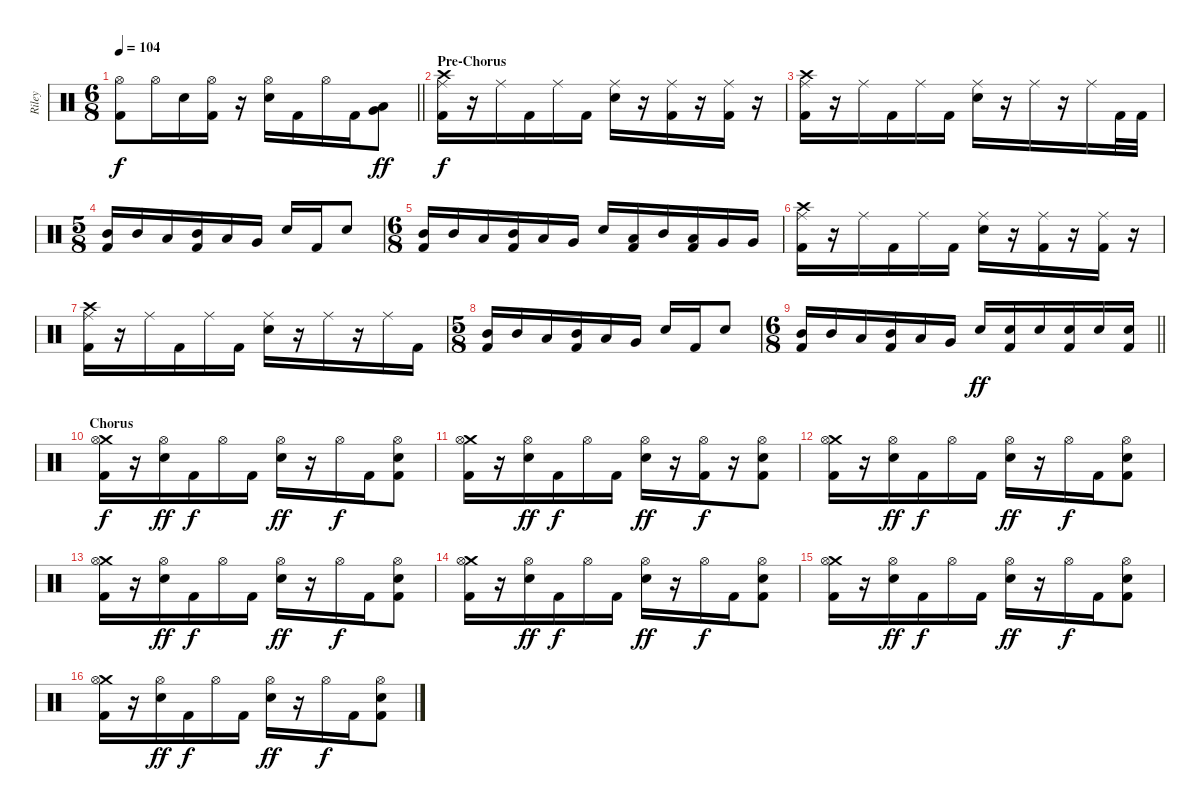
\track ("Riley" "Riley") {instrument percussion}
\staff {score}
\articulation defaults
\ts (6 8)
\tempo 104
\clef neutral
\barLineRight lightlight
\ks c
("Hi-Hat (open)" "Kick (hit) 2").8{dy f} "Hi-Hat (open)".16 "Electric Snare (hit)".16 ("Hi-Hat (open)" "Kick (hit) 2").16 r.16 ("Hi-Hat (open)" "Electric Snare (hit)").16 "Kick (hit) 2".16 "Hi-Hat (open)".16 "Kick (hit) 2".16 ("Low Floor Tom (hit)" "Very Low Tom (hit)").8{dy ff} |
\section ("" "Pre-Chorus")
("Crash high (hit)" "Ride (middle)" "Kick (hit) 2").16{dy f} r.16 "Ride (middle)".16 "Kick (hit) 2".16 "Ride (middle)".16 "Kick (hit) 2".16 ("Ride (middle)" "Electric Snare (hit)").16 r.16 ("Ride (middle)" "Kick (hit) 2").16 r.16 ("Ride (middle)" "Kick (hit) 2").16 r.16 |
("Crash high (hit)" "Ride (middle)" "Kick (hit) 2").16 r.16 "Ride (middle)".16 "Kick (hit) 2".16 "Ride (middle)".16 "Kick (hit) 2".16 ("Ride (middle)" "Electric Snare (hit)").16 r.16 "Ride (middle)".16 r.16 "Ride (middle)".16 "Kick (hit) 2".32 "Kick (hit) 2".32 |
\ts (5 8)
("Mid Tom (hit)" "Kick (hit) 2").16 "Mid Tom (hit)".16 "Low Tom (hit)".16 ("Mid Tom (hit)" "Kick (hit) 2").16 "Low Tom (hit)".16 "Very Low Tom (hit)".16 "Electric Snare (hit)".16 "Kick (hit) 2".16 "Electric Snare (hit)".8 |
\ts (6 8)
("Mid Tom (hit)" "Kick (hit) 2").16 "Mid Tom (hit)".16 "Low Tom (hit)".16 ("Mid Tom (hit)" "Kick (hit) 2").16 "Low Tom (hit)".16 "Very Low Tom (hit)".16 "Electric Snare (hit)".16 ("Low Tom (hit)" "Kick (hit) 2").16 "Mid Tom (hit)".16 ("Low Tom (hit)" "Kick (hit) 2").16 "Very Low Tom (hit)".16 "Very Low Tom (hit)".16 |
("Crash high (hit)" "Ride (middle)" "Kick (hit) 2").16 r.16 "Ride (middle)".16 "Kick (hit) 2".16 "Ride (middle)".16 "Kick (hit) 2".16 ("Ride (middle)" "Electric Snare (hit)").16 r.16 ("Ride (middle)" "Kick (hit) 2").16 r.16 ("Ride (middle)" "Kick (hit) 2").16 r.16 |
("Crash high (hit)" "Ride (middle)" "Kick (hit) 2").16 r.16 "Ride (middle)".16 "Kick (hit) 2".16 "Ride (middle)".16 "Kick (hit) 2".16 ("Ride (middle)" "Electric Snare (hit)").16 r.16 "Ride (middle)".16 r.16 "Ride (middle)".16 "Kick (hit) 2".16 |
\ts (5 8)
("Mid Tom (hit)" "Kick (hit) 2").16 "Mid Tom (hit)".16 "Low Tom (hit)".16 ("Mid Tom (hit)" "Kick (hit) 2").16 "Low Tom (hit)".16 "Very Low Tom (hit)".16 "Electric Snare (hit)".16 "Kick (hit) 2".16 "Electric Snare (hit)".8 |
\ts (6 8)
\barLineRight lightlight
("Mid Tom (hit)" "Kick (hit) 2").16 "Mid Tom (hit)".16 "Low Tom (hit)".16 ("Mid Tom (hit)" "Kick (hit) 2").16 "Low Tom (hit)".16 "Very Low Tom (hit)".16 "Electric Snare (hit)".16{dy ff} ("Electric Snare (hit)" "Kick (hit) 2").16 "Electric Snare (hit)".16 ("Electric Snare (hit)" "Kick (hit) 2").16 "Electric Snare (hit)".16 ("Electric Snare (hit)" "Kick (hit) 2").16 |
\section ("" "Chorus")
("Crash medium (hit)" "Hi-Hat (open)" "Kick (hit) 2").16{dy f} r.16 ("Hi-Hat (open)" "Electric Snare (hit)").16{dy ff} "Kick (hit) 2".16{dy f} "Hi-Hat (open)".16 "Kick (hit) 2".16 ("Hi-Hat (open)" "Electric Snare (hit)").16{dy ff} r.16 "Hi-Hat (open)".16{dy f} "Kick (hit) 2".16 ("Hi-Hat (open)" "Electric Snare (hit)" "Kick (hit) 2").8 |
("Crash medium (hit)" "Hi-Hat (open)" "Kick (hit) 2").16 r.16 ("Hi-Hat (open)" "Electric Snare (hit)").16{dy ff} "Kick (hit) 2".16{dy f} "Hi-Hat (open)".16 "Kick (hit) 2".16 ("Hi-Hat (open)" "Electric Snare (hit)").16{dy ff} r.16 ("Hi-Hat (open)" "Kick (hit) 2").16{dy f} r.16 ("Hi-Hat (open)" "Electric Snare (hit)" "Kick (hit) 2").8 |
("Crash medium (hit)" "Hi-Hat (open)" "Kick (hit) 2").16 r.16 ("Hi-Hat (open)" "Electric Snare (hit)").16{dy ff} "Kick (hit) 2".16{dy f} "Hi-Hat (open)".16 "Kick (hit) 2".16 ("Hi-Hat (open)" "Electric Snare (hit)").16{dy ff} r.16 "Hi-Hat (open)".16{dy f} "Kick (hit) 2".16 ("Hi-Hat (open)" "Electric Snare (hit)" "Kick (hit) 2").8 |
("Crash medium (hit)" "Hi-Hat (open)" "Kick (hit) 2").16 r.16 ("Hi-Hat (open)" "Electric Snare (hit)").16{dy ff} "Kick (hit) 2".16{dy f} "Hi-Hat (open)".16 "Kick (hit) 2".16 ("Hi-Hat (open)" "Electric Snare (hit)").16{dy ff} r.16 "Hi-Hat (open)".16{dy f} "Kick (hit) 2".16 ("Hi-Hat (open)" "Electric Snare (hit)" "Kick (hit) 2").8 |
("Crash medium (hit)" "Hi-Hat (open)" "Kick (hit) 2").16 r.16 ("Hi-Hat (open)" "Electric Snare (hit)").16{dy ff} "Kick (hit) 2".16{dy f} "Hi-Hat (open)".16 "Kick (hit) 2".16 ("Hi-Hat (open)" "Electric Snare (hit)").16{dy ff} r.16 "Hi-Hat (open)".16{dy f} "Kick (hit) 2".16 ("Hi-Hat (open)" "Electric Snare (hit)" "Kick (hit) 2").8 |
("Crash medium (hit)" "Hi-Hat (open)" "Kick (hit) 2").16 r.16 ("Hi-Hat (open)" "Electric Snare (hit)").16{dy ff} "Kick (hit) 2".16{dy f} "Hi-Hat (open)".16 "Kick (hit) 2".16 ("Hi-Hat (open)" "Electric Snare (hit)").16{dy ff} r.16 "Hi-Hat (open)".16{dy f} "Kick (hit) 2".16 ("Hi-Hat (open)" "Electric Snare (hit)" "Kick (hit) 2").8 |
("Crash medium (hit)" "Hi-Hat (open)" "Kick (hit) 2").16 r.16 ("Hi-Hat (open)" "Electric Snare (hit)").16{dy ff} "Kick (hit) 2".16{dy f} "Hi-Hat (open)".16 "Kick (hit) 2".16 ("Hi-Hat (open)" "Electric Snare (hit)").16{dy ff} r.16 "Hi-Hat (open)".16{dy f} "Kick (hit) 2".16 ("Hi-Hat (open)" "Electric Snare (hit)" "Kick (hit) 2").8
